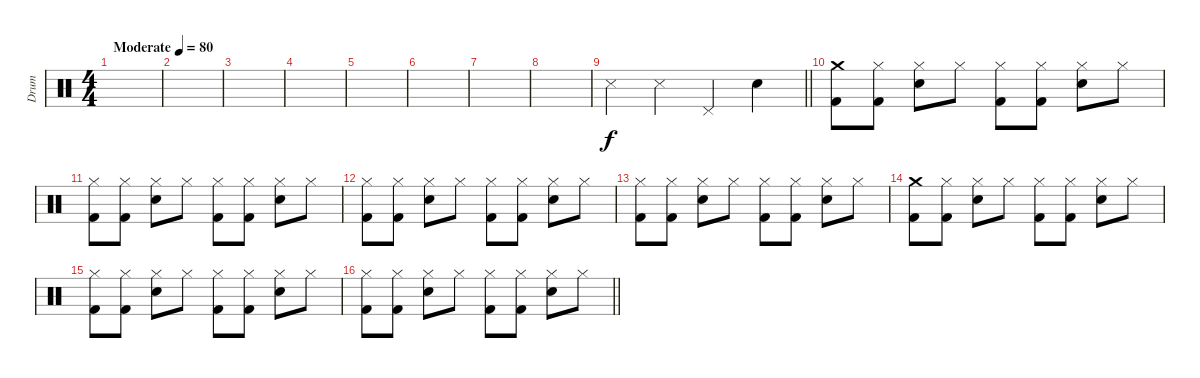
\track ("Drum" "Drum") {instrument percussion}
\staff {score}
\articulation defaults
\ts (4 4)
\tempo (80 "Moderate")
\clef neutral
\ks c
|
|
|
|
|
|
|
|
\barLineRight lightlight "Snare (side stick) 3".4 "Snare (side stick) 3".4 "Pedal Hi-Hat (hit)".4 "Electric Snare (hit)".4
|
("Crash medium (hit)" "Kick (hit) 2").8 ("Hi-Hat (closed)" "Kick (hit) 2").8 ("Hi-Hat (closed)" "Electric Snare (hit)").8 "Hi-Hat (closed)".8 ("Hi-Hat (closed)" "Kick (hit) 2").8 ("Hi-Hat (closed)" "Kick (hit) 2").8 ("Hi-Hat (closed)" "Electric Snare (hit)").8 "Hi-Hat (closed)".8 |
("Hi-Hat (closed)" "Kick (hit) 2").8 ("Hi-Hat (closed)" "Kick (hit) 2").8 ("Hi-Hat (closed)" "Electric Snare (hit)").8 "Hi-Hat (closed)".8 ("Hi-Hat (closed)" "Kick (hit) 2").8 ("Hi-Hat (closed)" "Kick (hit) 2").8 ("Hi-Hat (closed)" "Electric Snare (hit)").8 "Hi-Hat (closed)".8 |
("Hi-Hat (closed)" "Kick (hit) 2").8 ("Hi-Hat (closed)" "Kick (hit) 2").8 ("Hi-Hat (closed)" "Electric Snare (hit)").8 "Hi-Hat (closed)".8 ("Hi-Hat (closed)" "Kick (hit) 2").8 ("Hi-Hat (closed)" "Kick (hit) 2").8 ("Hi-Hat (closed)" "Electric Snare (hit)").8 "Hi-Hat (closed)".8 |
("Hi-Hat (closed)" "Kick (hit) 2").8 ("Hi-Hat (closed)" "Kick (hit) 2").8 ("Hi-Hat (closed)" "Electric Snare (hit)").8 "Hi-Hat (closed)".8 ("Hi-Hat (closed)" "Kick (hit) 2").8 ("Hi-Hat (closed)" "Kick (hit) 2").8 ("Hi-Hat (closed)" "Electric Snare (hit)").8 "Hi-Hat (closed)".8 |
("Crash medium (hit)" "Kick (hit) 2").8 ("Hi-Hat (closed)" "Kick (hit) 2").8 ("Hi-Hat (closed)" "Electric Snare (hit)").8 "Hi-Hat (closed)".8 ("Hi-Hat (closed)" "Kick (hit) 2").8 ("Hi-Hat (closed)" "Kick (hit) 2").8 ("Hi-Hat (closed)" "Electric Snare (hit)").8 "Hi-Hat (closed)".8 |
("Hi-Hat (closed)" "Kick (hit) 2").8 ("Hi-Hat (closed)" "Kick (hit) 2").8 ("Hi-Hat (closed)" "Electric Snare (hit)").8 "Hi-Hat (closed)".8 ("Hi-Hat (closed)" "Kick (hit) 2").8 ("Hi-Hat (closed)" "Kick (hit) 2").8 ("Hi-Hat (closed)" "Electric Snare (hit)").8 "Hi-Hat (closed)".8 |
\barLineRight lightlight
("Hi-Hat (closed)" "Kick (hit) 2").8 ("Hi-Hat (closed)" "Kick (hit) 2").8 ("Hi-Hat (closed)" "Electric Snare (hit)").8 "Hi-Hat (closed)".8 ("Hi-Hat (closed)" "Kick (hit) 2").8 ("Hi-Hat (closed)" "Kick (hit) 2").8 ("Hi-Hat (closed)" "Electric Snare (hit)").8 "Hi-Hat (closed)".8
